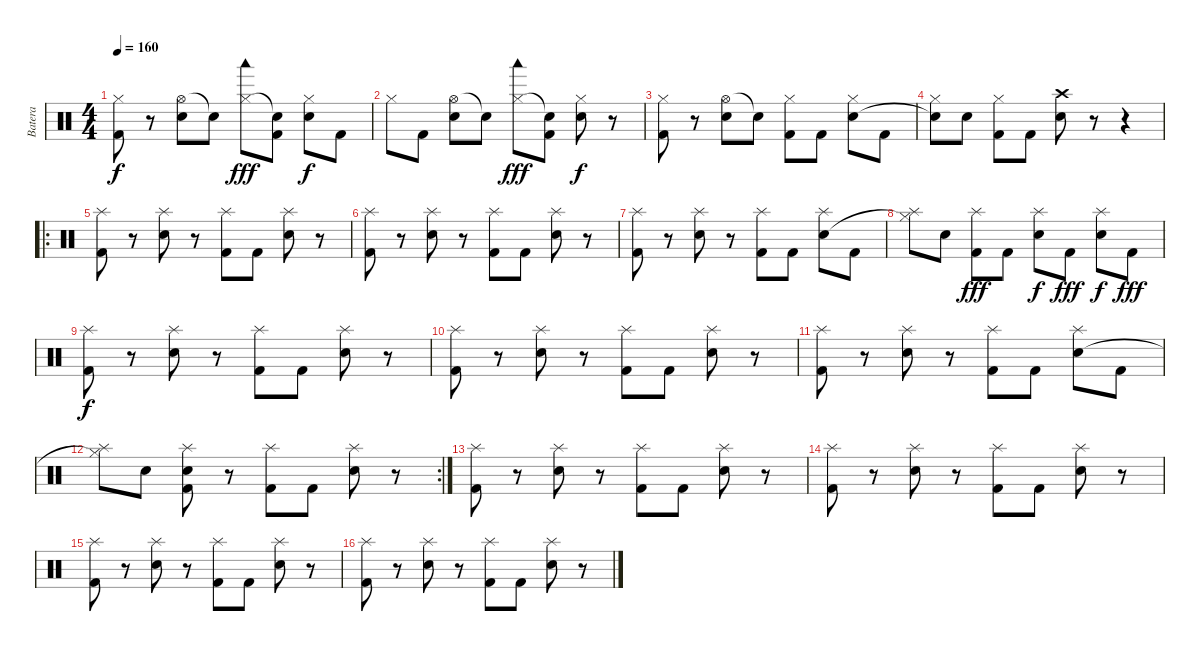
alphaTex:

\track ("Batera" "Batera") {instrument percussion}
\staff {score}
\articulation defaults
\ts (4 4)
\tempo 160
\clef neutral
\ks c
("Hi-Hat (closed)" "Kick (hit) 2").8{dy f} r.8 ("Hi-Hat (open)" "Electric Snare (hit)").8 "Snare (hit)"{t}.8 ("Hi-Hat (closed)" "Woodblock low (hit)").8{dy fff} ("Snare (hit)"{t} "Kick (hit) 2").8 ("Hi-Hat (closed)" "Electric Snare (hit)").8{dy f} "Kick (hit) 2".8 |
"Hi-Hat (closed)".8 "Kick (hit) 2".8 ("Hi-Hat (open)" "Electric Snare (hit)").8 "Snare (hit)"{t}.8 ("Hi-Hat (closed)" "Woodblock low (hit)").8{dy fff} ("Snare (hit)"{t} "Kick (hit) 2").8 ("Hi-Hat (closed)" "Electric Snare (hit)").8{dy f} r.8 |
("Hi-Hat (closed)" "Kick (hit) 2").8 r.8 ("Hi-Hat (open)" "Electric Snare (hit)").8 "Snare (hit)"{t}.8 ("Hi-Hat (closed)" "Kick (hit) 2").8 "Kick (hit) 2".8 ("Hi-Hat (closed)" "Electric Snare (hit)").8 "Kick (hit) 2".8 |
("Hi-Hat (closed)" "Snare (hit)"{t}).8 "Electric Snare (hit)".8 ("Hi-Hat (closed)" "Kick (hit) 2").8 "Kick (hit) 2".8 ("Crash high (hit)" "Electric Snare (hit)").8 r.8 r.4 |
\ro
("Splash (hit)" "Kick (hit) 2").8 r.8 ("Splash (hit)" "Electric Snare (hit)").8 r.8 ("Splash (hit)" "Kick (hit) 2").8 "Kick (hit) 2".8 ("Splash (hit)" "Electric Snare (hit)").8 r.8 |
("Splash (hit)" "Kick (hit) 2").8 r.8 ("Splash (hit)" "Electric Snare (hit)").8 r.8 ("Splash (hit)" "Kick (hit) 2").8 "Kick (hit) 2".8 ("Splash (hit)" "Electric Snare (hit)").8 r.8 |
("Splash (hit)" "Kick (hit) 2").8 r.8 ("Splash (hit)" "Electric Snare (hit)").8 r.8 ("Splash (hit)" "Kick (hit) 2").8 "Kick (hit) 2".8 ("Splash (hit)" "Electric Snare (hit)").8 "Kick (hit) 2".8 |
("Splash (hit)" "Hi-Hat (closed)"{t}).8 "Electric Snare (hit)".8 ("Splash (hit)" "Kick (hit) 2").8{dy fff} "Kick (hit) 2".8 ("Splash (hit)" "Electric Snare (hit)").8{dy f} "Kick (hit) 2".8{dy fff} ("Splash (hit)" "Electric Snare (hit)").8{dy f} "Kick (hit) 2".8{dy fff} |
("Splash (hit)" "Kick (hit) 2").8{dy f} r.8 ("Splash (hit)" "Electric Snare (hit)").8 r.8 ("Splash (hit)" "Kick (hit) 2").8 "Kick (hit) 2".8 ("Splash (hit)" "Electric Snare (hit)").8 r.8 |
("Splash (hit)" "Kick (hit) 2").8 r.8 ("Splash (hit)" "Electric Snare (hit)").8 r.8 ("Splash (hit)" "Kick (hit) 2").8 "Kick (hit) 2".8 ("Splash (hit)" "Electric Snare (hit)").8 r.8 |
("Splash (hit)" "Kick (hit) 2").8 r.8 ("Splash (hit)" "Electric Snare (hit)").8 r.8 ("Splash (hit)" "Kick (hit) 2").8 "Kick (hit) 2".8 ("Splash (hit)" "Electric Snare (hit)").8 "Kick (hit) 2".8 |
\rc 2
("Splash (hit)" "Hi-Hat (closed)"{t}).8 "Electric Snare (hit)".8 ("Splash (hit)" "Electric Snare (hit)" "Kick (hit) 2").8 r.8 ("Splash (hit)" "Kick (hit) 2").8 "Kick (hit) 2".8 ("Splash (hit)" "Electric Snare (hit)").8 r.8 |
("Splash (hit)" "Kick (hit) 2").8 r.8 ("Splash (hit)" "Electric Snare (hit)").8 r.8 ("Splash (hit)" "Kick (hit) 2").8 "Kick (hit) 2".8 ("Splash (hit)" "Electric Snare (hit)").8 r.8 |
("Splash (hit)" "Kick (hit) 2").8 r.8 ("Splash (hit)" "Electric Snare (hit)").8 r.8 ("Splash (hit)" "Kick (hit) 2").8 "Kick (hit) 2".8 ("Splash (hit)" "Electric Snare (hit)").8 r.8 |
("Splash (hit)" "Kick (hit) 2").8 r.8 ("Splash (hit)" "Electric Snare (hit)").8 r.8 ("Splash (hit)" "Kick (hit) 2").8 "Kick (hit) 2".8 ("Splash (hit)" "Electric Snare (hit)").8 r.8 |
("Splash (hit)" "Kick (hit) 2").8 r.8 ("Splash (hit)" "Electric Snare (hit)").8 r.8 ("Splash (hit)" "Kick (hit) 2").8 "Kick (hit) 2".8 ("Splash (hit)" "Electric Snare (hit)").8 r.8
